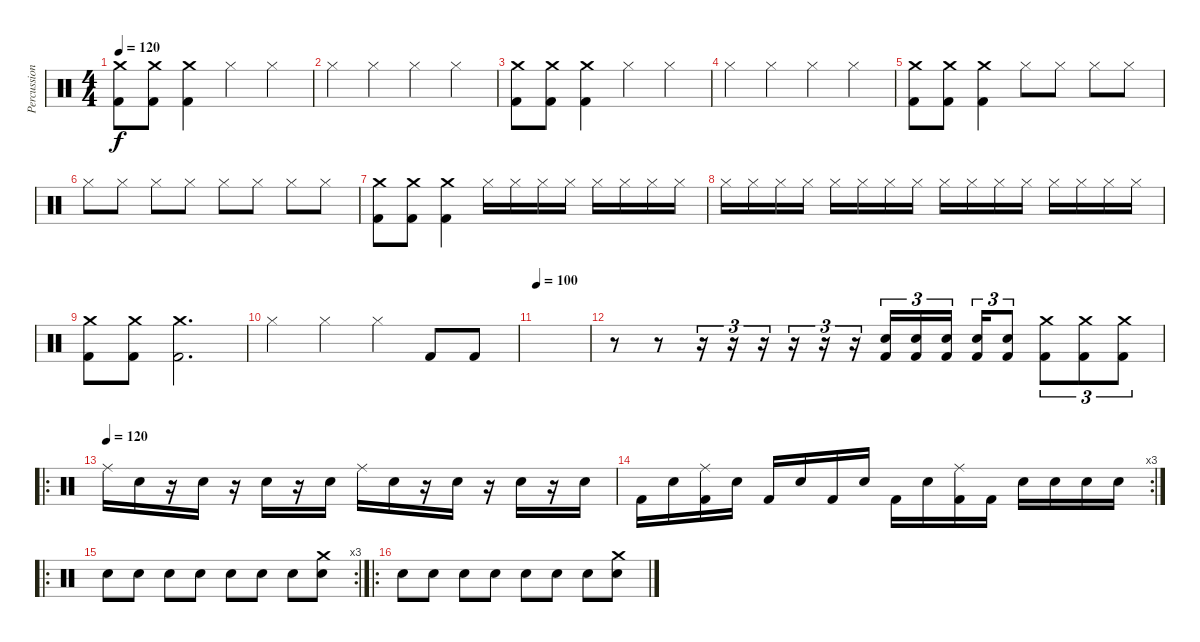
\track ("Percussion" "Percussion") {instrument percussion}
\staff {score}
\articulation defaults
\ts (4 4)
\tempo 120
\clef neutral
\ks c
("Crash medium (hit)" "Kick (hit) 2").8{dy f} ("Crash medium (hit)" "Kick (hit) 2").8 ("Crash medium (hit)" "Kick (hit) 2").4 "Hi-Hat (closed)".4 "Hi-Hat (closed)".4 |
"Hi-Hat (closed)".4 "Hi-Hat (closed)".4 "Hi-Hat (closed)".4 "Hi-Hat (closed)".4 |
("Crash medium (hit)" "Kick (hit) 2").8 ("Crash medium (hit)" "Kick (hit) 2").8 ("Crash medium (hit)" "Kick (hit) 2").4 "Hi-Hat (closed)".4 "Hi-Hat (closed)".4 |
"Hi-Hat (closed)".4 "Hi-Hat (closed)".4 "Hi-Hat (closed)".4 "Hi-Hat (closed)".4 |
("Crash medium (hit)" "Kick (hit) 2").8 ("Crash medium (hit)" "Kick (hit) 2").8 ("Crash medium (hit)" "Kick (hit) 2").4 "Hi-Hat (closed)".8 "Hi-Hat (closed)".8 "Hi-Hat (closed)".8 "Hi-Hat (closed)".8 |
"Hi-Hat (closed)".8 "Hi-Hat (closed)".8 "Hi-Hat (closed)".8 "Hi-Hat (closed)".8 "Hi-Hat (closed)".8 "Hi-Hat (closed)".8 "Hi-Hat (closed)".8 "Hi-Hat (closed)".8 |
("Crash medium (hit)" "Kick (hit) 2").8 ("Crash medium (hit)" "Kick (hit) 2").8 ("Crash medium (hit)" "Kick (hit) 2").4 "Hi-Hat (closed)".16 "Hi-Hat (closed)".16 "Hi-Hat (closed)".16 "Hi-Hat (closed)".16 "Hi-Hat (closed)".16 "Hi-Hat (closed)".16 "Hi-Hat (closed)".16 "Hi-Hat (closed)".16 |
"Hi-Hat (closed)".16 "Hi-Hat (closed)".16 "Hi-Hat (closed)".16 "Hi-Hat (closed)".16 "Hi-Hat (closed)".16 "Hi-Hat (closed)".16 "Hi-Hat (closed)".16 "Hi-Hat (closed)".16 "Hi-Hat (closed)".16 "Hi-Hat (closed)".16 "Hi-Hat (closed)".16 "Hi-Hat (closed)".16 "Hi-Hat (closed)".16 "Hi-Hat (closed)".16 "Hi-Hat (closed)".16 "Hi-Hat (closed)".16 |
("Crash medium (hit)" "Kick (hit) 2").8 ("Crash medium (hit)" "Kick (hit) 2").8 ("Crash medium (hit)" "Kick (hit) 2").2{d} |
"Hi-Hat (closed)".4 "Hi-Hat (closed)".4 "Hi-Hat (closed)".4 "Kick (hit) 2".8 "Kick (hit) 2".8 |
\tempo 100
|
r.8 r.8 r.16{tu (3 2)} r.16{tu (3 2)} r.16{tu (3 2)} r.16{tu (3 2)} r.16{tu (3 2)} r.16{tu (3 2)} ("Electric Snare (hit)" "Kick (hit) 2").16{tu (3 2)} ("Electric Snare (hit)" "Kick (hit) 2").16{tu (3 2)} ("Electric Snare (hit)" "Kick (hit) 2").16{tu (3 2)} ("Electric Snare (hit)" "Kick (hit) 2").16{tu (3 2)} ("Electric Snare (hit)" "Kick (hit) 2").8{tu (3 2)} ("Crash medium (hit)" "Kick (hit) 2").8{tu (3 2)} ("Crash medium (hit)" "Kick (hit) 2").8{tu (3 2)} ("Crash medium (hit)" "Kick (hit) 2").8{tu (3 2)} |
\ro
\tempo (120)
"Ride (middle)".16 "Electric Snare (hit)".16 r.16 "Electric Snare (hit)".16 r.16 "Electric Snare (hit)".16 r.16 "Electric Snare (hit)".16 "Ride (middle)".16 "Electric Snare (hit)".16 r.16 "Electric Snare (hit)".16 r.16 "Electric Snare (hit)".16 r.16 "Electric Snare (hit)".16 |
\rc 3 "Kick (hit) 2".16 "Electric Snare (hit)".16
("Ride (middle)" "Kick (hit) 2").16 "Electric Snare (hit)".16 "Kick (hit) 2".16 "Electric Snare (hit)".16 "Kick (hit) 2".16 "Electric Snare (hit)".16 "Kick (hit) 2".16 "Electric Snare (hit)".16 ("Ride (middle)" "Kick (hit) 2").16 "Kick (hit) 2".16 "Electric Snare (hit)".16 "Electric Snare (hit)".16 "Electric Snare (hit)".16 "Electric Snare (hit)".16 |
\ro
\rc 3 "Electric Snare (hit)".8 "Electric Snare (hit)".8 "Electric Snare (hit)".8 "Electric Snare (hit)".8 "Electric Snare (hit)".8 "Electric Snare (hit)".8 "Electric Snare (hit)".8
("Crash medium (hit)" "Electric Snare (hit)").8 |
\ro "Electric Snare (hit)".8 "Electric Snare (hit)".8 "Electric Snare (hit)".8 "Electric Snare (hit)".8 "Electric Snare (hit)".8 "Electric Snare (hit)".8 "Electric Snare (hit)".8
("Crash medium (hit)" "Electric Snare (hit)").8
